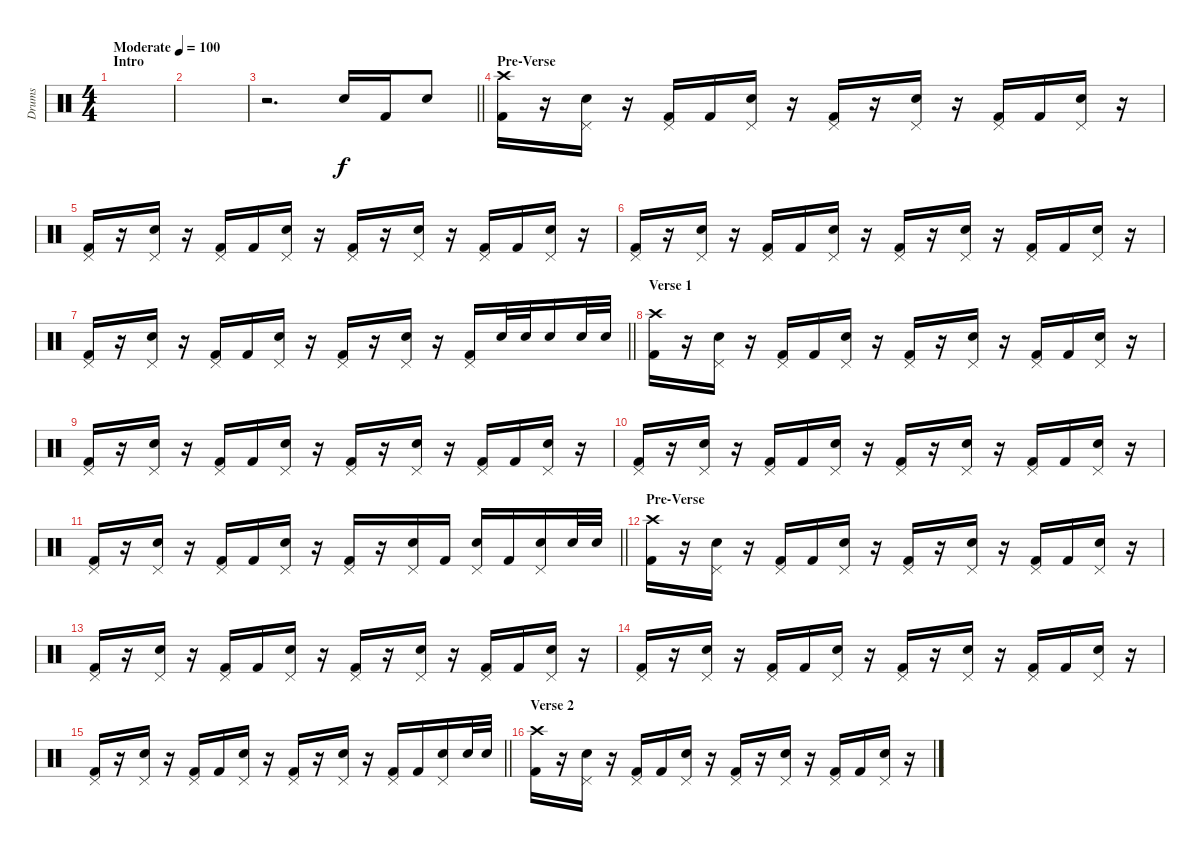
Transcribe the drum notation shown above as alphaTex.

\track ("Drums" "Drums") {instrument percussion}
\staff {score}
\articulation defaults
\ts (4 4)
\section ("" "Intro")
\tempo (100 "Moderate")
\clef neutral
\ks c
|
|
\barLineRight lightlight
r.2{d} "Snare (hit) 2".16 "Kick (hit) 2".16 "Snare (hit) 2".8 |
\section ("" "Pre-Verse")
("Crash high (hit)" "Kick (hit) 2").16 r.16 ("Pedal Hi-Hat (hit)" "Snare (hit) 2").16 r.16 ("Pedal Hi-Hat (hit)" "Kick (hit) 2").16 "Kick (hit) 2".16 ("Pedal Hi-Hat (hit)" "Snare (hit) 2").16 r.16 ("Pedal Hi-Hat (hit)" "Kick (hit) 2").16 r.16 ("Pedal Hi-Hat (hit)" "Snare (hit) 2").16 r.16 ("Pedal Hi-Hat (hit)" "Kick (hit) 2").16 "Kick (hit) 2".16 ("Pedal Hi-Hat (hit)" "Snare (hit) 2").16 r.16 |
("Pedal Hi-Hat (hit)" "Kick (hit) 2").16 r.16 ("Pedal Hi-Hat (hit)" "Snare (hit) 2").16 r.16 ("Pedal Hi-Hat (hit)" "Kick (hit) 2").16 "Kick (hit) 2".16 ("Pedal Hi-Hat (hit)" "Snare (hit) 2").16 r.16 ("Pedal Hi-Hat (hit)" "Kick (hit) 2").16 r.16 ("Pedal Hi-Hat (hit)" "Snare (hit) 2").16 r.16 ("Pedal Hi-Hat (hit)" "Kick (hit) 2").16 "Kick (hit) 2".16 ("Pedal Hi-Hat (hit)" "Snare (hit) 2").16 r.16 |
("Pedal Hi-Hat (hit)" "Kick (hit) 2").16 r.16 ("Pedal Hi-Hat (hit)" "Snare (hit) 2").16 r.16 ("Pedal Hi-Hat (hit)" "Kick (hit) 2").16 "Kick (hit) 2".16 ("Pedal Hi-Hat (hit)" "Snare (hit) 2").16 r.16 ("Pedal Hi-Hat (hit)" "Kick (hit) 2").16 r.16 ("Pedal Hi-Hat (hit)" "Snare (hit) 2").16 r.16 ("Pedal Hi-Hat (hit)" "Kick (hit) 2").16 "Kick (hit) 2".16 ("Pedal Hi-Hat (hit)" "Snare (hit) 2").16 r.16 |
\barLineRight lightlight
("Pedal Hi-Hat (hit)" "Kick (hit) 2").16 r.16 ("Pedal Hi-Hat (hit)" "Snare (hit) 2").16 r.16 ("Pedal Hi-Hat (hit)" "Kick (hit) 2").16 "Kick (hit) 2".16 ("Pedal Hi-Hat (hit)" "Snare (hit) 2").16 r.16 ("Pedal Hi-Hat (hit)" "Kick (hit) 2").16 r.16 ("Pedal Hi-Hat (hit)" "Snare (hit) 2").16 r.16 ("Pedal Hi-Hat (hit)" "Kick (hit) 2").16 "Snare (hit) 2".32 "Snare (hit) 2".32 "Snare (hit) 2".16 "Snare (hit) 2".32 "Snare (hit) 2".32 |
\section ("" "Verse 1")
("Crash high (hit)" "Kick (hit) 2").16 r.16 ("Pedal Hi-Hat (hit)" "Snare (hit) 2").16 r.16 ("Pedal Hi-Hat (hit)" "Kick (hit) 2").16 "Kick (hit) 2".16 ("Pedal Hi-Hat (hit)" "Snare (hit) 2").16 r.16 ("Pedal Hi-Hat (hit)" "Kick (hit) 2").16 r.16 ("Pedal Hi-Hat (hit)" "Snare (hit) 2").16 r.16 ("Pedal Hi-Hat (hit)" "Kick (hit) 2").16 "Kick (hit) 2".16 ("Pedal Hi-Hat (hit)" "Snare (hit) 2").16 r.16 |
("Pedal Hi-Hat (hit)" "Kick (hit) 2").16 r.16 ("Pedal Hi-Hat (hit)" "Snare (hit) 2").16 r.16 ("Pedal Hi-Hat (hit)" "Kick (hit) 2").16 "Kick (hit) 2".16 ("Pedal Hi-Hat (hit)" "Snare (hit) 2").16 r.16 ("Pedal Hi-Hat (hit)" "Kick (hit) 2").16 r.16 ("Pedal Hi-Hat (hit)" "Snare (hit) 2").16 r.16 ("Pedal Hi-Hat (hit)" "Kick (hit) 2").16 "Kick (hit) 2".16 ("Pedal Hi-Hat (hit)" "Snare (hit) 2").16 r.16 |
("Pedal Hi-Hat (hit)" "Kick (hit) 2").16 r.16 ("Pedal Hi-Hat (hit)" "Snare (hit) 2").16 r.16 ("Pedal Hi-Hat (hit)" "Kick (hit) 2").16 "Kick (hit) 2".16 ("Pedal Hi-Hat (hit)" "Snare (hit) 2").16 r.16 ("Pedal Hi-Hat (hit)" "Kick (hit) 2").16 r.16 ("Pedal Hi-Hat (hit)" "Snare (hit) 2").16 r.16 ("Pedal Hi-Hat (hit)" "Kick (hit) 2").16 "Kick (hit) 2".16 ("Pedal Hi-Hat (hit)" "Snare (hit) 2").16 r.16 |
\barLineRight lightlight
("Pedal Hi-Hat (hit)" "Kick (hit) 2").16 r.16 ("Pedal Hi-Hat (hit)" "Snare (hit) 2").16 r.16 ("Pedal Hi-Hat (hit)" "Kick (hit) 2").16 "Kick (hit) 2".16 ("Pedal Hi-Hat (hit)" "Snare (hit) 2").16 r.16 ("Pedal Hi-Hat (hit)" "Kick (hit) 2").16 r.16 ("Pedal Hi-Hat (hit)" "Snare (hit) 2").16 "Kick (hit) 2".16 ("Pedal Hi-Hat (hit)" "Snare (hit) 2").16 "Kick (hit) 2".16 ("Pedal Hi-Hat (hit)" "Snare (hit) 2").16 "Snare (hit) 2".32 "Snare (hit) 2".32 |
\section ("" "Pre-Verse")
("Crash high (hit)" "Kick (hit) 2").16 r.16 ("Pedal Hi-Hat (hit)" "Snare (hit) 2").16 r.16 ("Pedal Hi-Hat (hit)" "Kick (hit) 2").16 "Kick (hit) 2".16 ("Pedal Hi-Hat (hit)" "Snare (hit) 2").16 r.16 ("Pedal Hi-Hat (hit)" "Kick (hit) 2").16 r.16 ("Pedal Hi-Hat (hit)" "Snare (hit) 2").16 r.16 ("Pedal Hi-Hat (hit)" "Kick (hit) 2").16 "Kick (hit) 2".16 ("Pedal Hi-Hat (hit)" "Snare (hit) 2").16 r.16 |
("Pedal Hi-Hat (hit)" "Kick (hit) 2").16 r.16 ("Pedal Hi-Hat (hit)" "Snare (hit) 2").16 r.16 ("Pedal Hi-Hat (hit)" "Kick (hit) 2").16 "Kick (hit) 2".16 ("Pedal Hi-Hat (hit)" "Snare (hit) 2").16 r.16 ("Pedal Hi-Hat (hit)" "Kick (hit) 2").16 r.16 ("Pedal Hi-Hat (hit)" "Snare (hit) 2").16 r.16 ("Pedal Hi-Hat (hit)" "Kick (hit) 2").16 "Kick (hit) 2".16 ("Pedal Hi-Hat (hit)" "Snare (hit) 2").16 r.16 |
("Pedal Hi-Hat (hit)" "Kick (hit) 2").16 r.16 ("Pedal Hi-Hat (hit)" "Snare (hit) 2").16 r.16 ("Pedal Hi-Hat (hit)" "Kick (hit) 2").16 "Kick (hit) 2".16 ("Pedal Hi-Hat (hit)" "Snare (hit) 2").16 r.16 ("Pedal Hi-Hat (hit)" "Kick (hit) 2").16 r.16 ("Pedal Hi-Hat (hit)" "Snare (hit) 2").16 r.16 ("Pedal Hi-Hat (hit)" "Kick (hit) 2").16 "Kick (hit) 2".16 ("Pedal Hi-Hat (hit)" "Snare (hit) 2").16 r.16 |
\barLineRight lightlight
("Pedal Hi-Hat (hit)" "Kick (hit) 2").16 r.16 ("Pedal Hi-Hat (hit)" "Snare (hit) 2").16 r.16 ("Pedal Hi-Hat (hit)" "Kick (hit) 2").16 "Kick (hit) 2".16 ("Pedal Hi-Hat (hit)" "Snare (hit) 2").16 r.16 ("Pedal Hi-Hat (hit)" "Kick (hit) 2").16 r.16 ("Pedal Hi-Hat (hit)" "Snare (hit) 2").16 r.16 ("Pedal Hi-Hat (hit)" "Kick (hit) 2").16 "Kick (hit) 2".16 ("Pedal Hi-Hat (hit)" "Snare (hit) 2").16 "Snare (hit) 2".32 "Snare (hit) 2".32 |
\section ("" "Verse 2")
("Crash high (hit)" "Kick (hit) 2").16 r.16 ("Pedal Hi-Hat (hit)" "Snare (hit) 2").16 r.16 ("Pedal Hi-Hat (hit)" "Kick (hit) 2").16 "Kick (hit) 2".16 ("Pedal Hi-Hat (hit)" "Snare (hit) 2").16 r.16 ("Pedal Hi-Hat (hit)" "Kick (hit) 2").16 r.16 ("Pedal Hi-Hat (hit)" "Snare (hit) 2").16 r.16 ("Pedal Hi-Hat (hit)" "Kick (hit) 2").16 "Kick (hit) 2".16 ("Pedal Hi-Hat (hit)" "Snare (hit) 2").16 r.16
